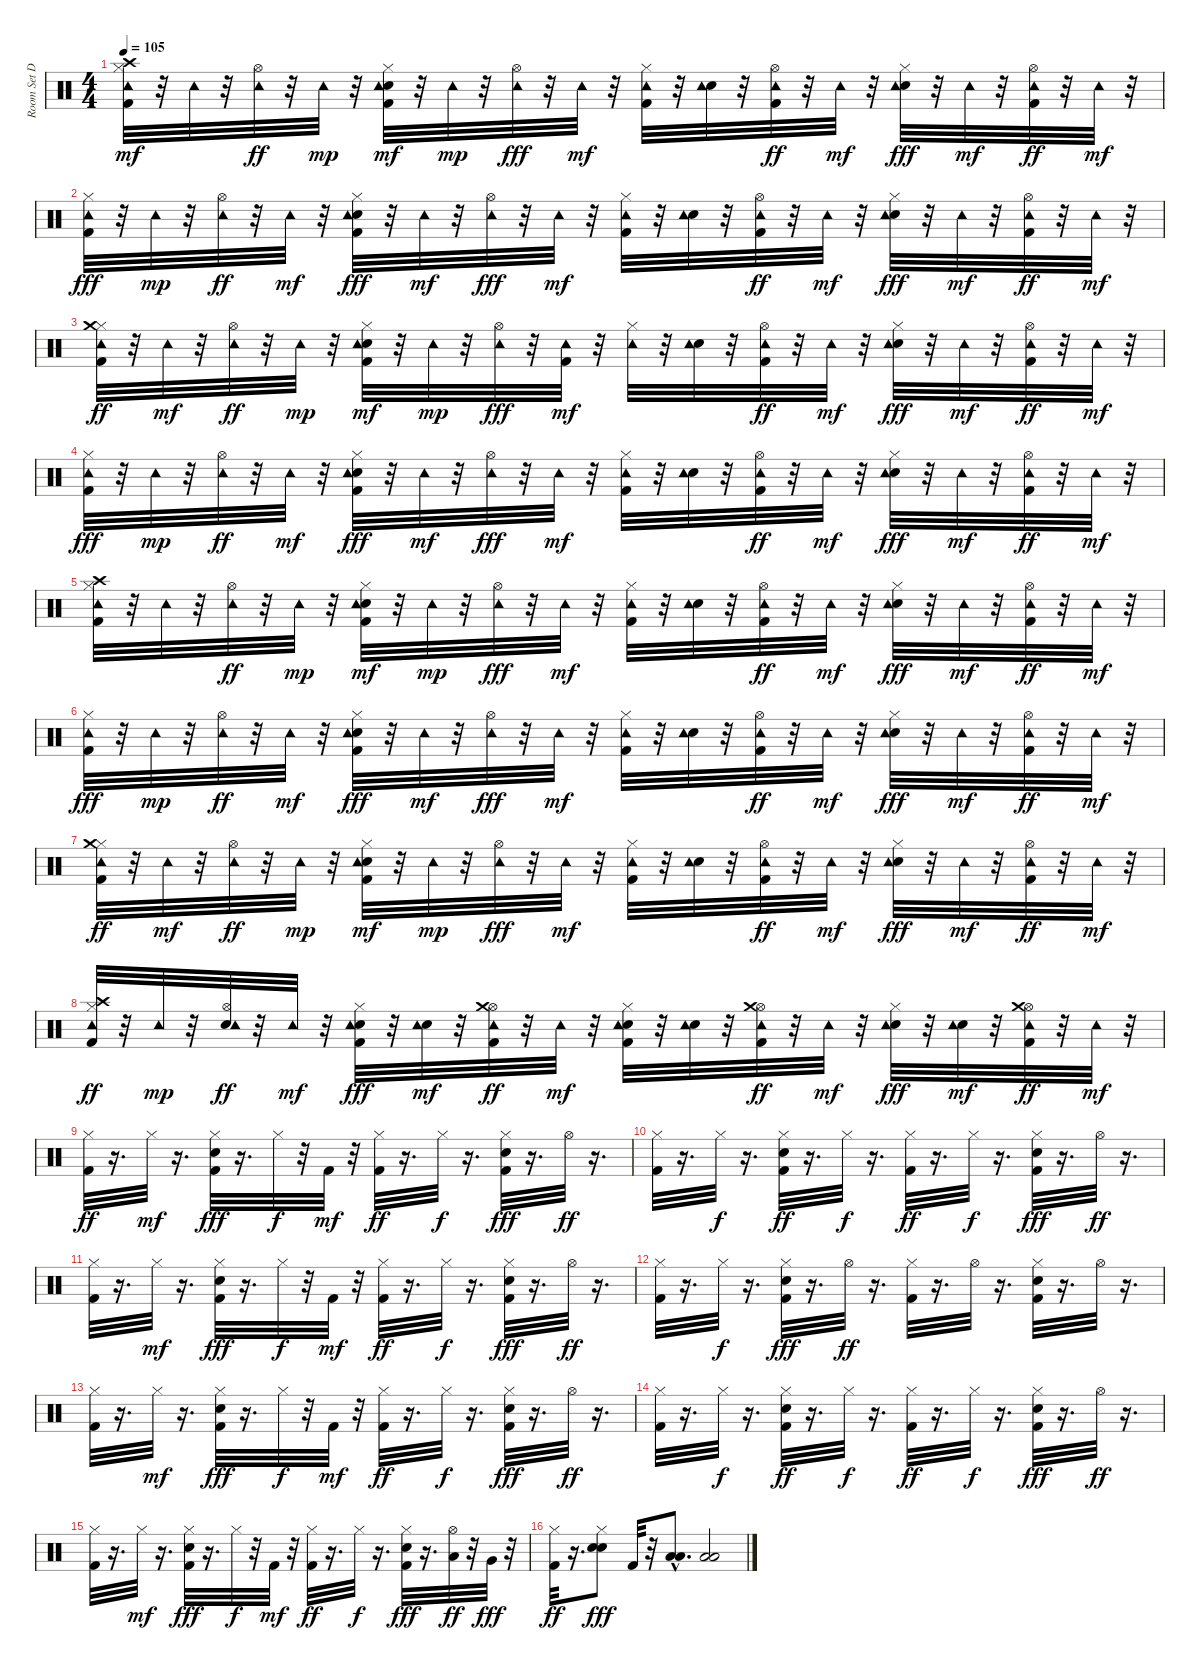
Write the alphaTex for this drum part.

\track ("Room Set Drums" "Room Set D") {instrument percussion}
\staff {score}
\articulation defaults
\ts (4 4)
\tempo 105
\clef neutral
\ks c
("Kick (hit) 2" "Hi-Hat (closed)" "Crash high (hit)" "Tambourine (hit)").32{dy mf} r.32 "Tambourine (hit)".32 r.32 ("Hi-Hat (open)" "Tambourine (hit)").32{dy ff} r.32 "Tambourine (hit)".32{dy mp} r.32 ("Kick (hit) 2" "Electric Snare (hit)" "Hi-Hat (closed)" "Tambourine (hit)").32{dy mf} r.32 "Tambourine (hit)".32{dy mp} r.32 ("Hi-Hat (open)" "Tambourine (hit)").32{dy fff} r.32 "Tambourine (hit)".32{dy mf} r.32 ("Kick (hit) 2" "Hi-Hat (closed)" "Tambourine (hit)").32 r.32 ("Electric Snare (hit)" "Tambourine (hit)").32 r.32 ("Kick (hit) 2" "Hi-Hat (open)" "Tambourine (hit)").32{dy ff} r.32 "Tambourine (hit)".32{dy mf} r.32 ("Electric Snare (hit)" "Hi-Hat (closed)" "Tambourine (hit)").32{dy fff} r.32 "Tambourine (hit)".32{dy mf} r.32 ("Kick (hit) 2" "Hi-Hat (open)" "Tambourine (hit)").32{dy ff} r.32 "Tambourine (hit)".32{dy mf} r.32 |
("Kick (hit) 2" "Hi-Hat (closed)" "Tambourine (hit)").32{dy fff} r.32 "Tambourine (hit)".32{dy mp} r.32 ("Hi-Hat (open)" "Tambourine (hit)").32{dy ff} r.32 "Tambourine (hit)".32{dy mf} r.32 ("Kick (hit) 2" "Electric Snare (hit)" "Hi-Hat (closed)" "Tambourine (hit)").32{dy fff} r.32 "Tambourine (hit)".32{dy mf} r.32 ("Hi-Hat (open)" "Tambourine (hit)").32{dy fff} r.32 "Tambourine (hit)".32{dy mf} r.32 ("Kick (hit) 2" "Hi-Hat (closed)" "Tambourine (hit)").32 r.32 ("Electric Snare (hit)" "Tambourine (hit)").32 r.32 ("Kick (hit) 2" "Hi-Hat (open)" "Tambourine (hit)").32{dy ff} r.32 "Tambourine (hit)".32{dy mf} r.32 ("Electric Snare (hit)" "Hi-Hat (closed)" "Tambourine (hit)").32{dy fff} r.32 "Tambourine (hit)".32{dy mf} r.32 ("Kick (hit) 2" "Hi-Hat (open)" "Tambourine (hit)").32{dy ff} r.32 "Tambourine (hit)".32{dy mf} r.32 |
("Kick (hit) 2" "Hi-Hat (closed)" "Tambourine (hit)" "Crash medium (hit)").32{dy ff} r.32 "Tambourine (hit)".32{dy mf} r.32 ("Hi-Hat (open)" "Tambourine (hit)").32{dy ff} r.32 "Tambourine (hit)".32{dy mp} r.32 ("Kick (hit) 2" "Electric Snare (hit)" "Hi-Hat (closed)" "Tambourine (hit)").32{dy mf} r.32 "Tambourine (hit)".32{dy mp} r.32 ("Hi-Hat (open)" "Tambourine (hit)").32{dy fff} r.32 ("Kick (hit) 2" "Tambourine (hit)").32{dy mf} r.32 ("Hi-Hat (closed)" "Tambourine (hit)").32 r.32 ("Electric Snare (hit)" "Tambourine (hit)").32 r.32 ("Kick (hit) 2" "Hi-Hat (open)" "Tambourine (hit)").32{dy ff} r.32 "Tambourine (hit)".32{dy mf} r.32 ("Electric Snare (hit)" "Hi-Hat (closed)" "Tambourine (hit)").32{dy fff} r.32 "Tambourine (hit)".32{dy mf} r.32 ("Kick (hit) 2" "Hi-Hat (open)" "Tambourine (hit)").32{dy ff} r.32 "Tambourine (hit)".32{dy mf} r.32 |
("Kick (hit) 2" "Hi-Hat (closed)" "Tambourine (hit)").32{dy fff} r.32 "Tambourine (hit)".32{dy mp} r.32 ("Hi-Hat (open)" "Tambourine (hit)").32{dy ff} r.32 "Tambourine (hit)".32{dy mf} r.32 ("Kick (hit) 2" "Electric Snare (hit)" "Hi-Hat (closed)" "Tambourine (hit)").32{dy fff} r.32 "Tambourine (hit)".32{dy mf} r.32 ("Hi-Hat (open)" "Tambourine (hit)").32{dy fff} r.32 "Tambourine (hit)".32{dy mf} r.32 ("Kick (hit) 2" "Hi-Hat (closed)" "Tambourine (hit)").32 r.32 ("Electric Snare (hit)" "Tambourine (hit)").32 r.32 ("Kick (hit) 2" "Hi-Hat (open)" "Tambourine (hit)").32{dy ff} r.32 "Tambourine (hit)".32{dy mf} r.32 ("Electric Snare (hit)" "Hi-Hat (closed)" "Tambourine (hit)").32{dy fff} r.32 "Tambourine (hit)".32{dy mf} r.32 ("Kick (hit) 2" "Hi-Hat (open)" "Tambourine (hit)").32{dy ff} r.32 "Tambourine (hit)".32{dy mf} r.32 |
("Kick (hit) 2" "Hi-Hat (closed)" "Crash high (hit)" "Tambourine (hit)").32 r.32 "Tambourine (hit)".32 r.32 ("Hi-Hat (open)" "Tambourine (hit)").32{dy ff} r.32 "Tambourine (hit)".32{dy mp} r.32 ("Kick (hit) 2" "Electric Snare (hit)" "Hi-Hat (closed)" "Tambourine (hit)").32{dy mf} r.32 "Tambourine (hit)".32{dy mp} r.32 ("Hi-Hat (open)" "Tambourine (hit)").32{dy fff} r.32 "Tambourine (hit)".32{dy mf} r.32 ("Kick (hit) 2" "Hi-Hat (closed)" "Tambourine (hit)").32 r.32 ("Electric Snare (hit)" "Tambourine (hit)").32 r.32 ("Kick (hit) 2" "Hi-Hat (open)" "Tambourine (hit)").32{dy ff} r.32 "Tambourine (hit)".32{dy mf} r.32 ("Electric Snare (hit)" "Hi-Hat (closed)" "Tambourine (hit)").32{dy fff} r.32 "Tambourine (hit)".32{dy mf} r.32 ("Kick (hit) 2" "Hi-Hat (open)" "Tambourine (hit)").32{dy ff} r.32 "Tambourine (hit)".32{dy mf} r.32 |
("Kick (hit) 2" "Hi-Hat (closed)" "Tambourine (hit)").32{dy fff} r.32 "Tambourine (hit)".32{dy mp} r.32 ("Hi-Hat (open)" "Tambourine (hit)").32{dy ff} r.32 "Tambourine (hit)".32{dy mf} r.32 ("Kick (hit) 2" "Electric Snare (hit)" "Hi-Hat (closed)" "Tambourine (hit)").32{dy fff} r.32 "Tambourine (hit)".32{dy mf} r.32 ("Hi-Hat (open)" "Tambourine (hit)").32{dy fff} r.32 "Tambourine (hit)".32{dy mf} r.32 ("Kick (hit) 2" "Hi-Hat (closed)" "Tambourine (hit)").32 r.32 ("Electric Snare (hit)" "Tambourine (hit)").32 r.32 ("Kick (hit) 2" "Hi-Hat (open)" "Tambourine (hit)").32{dy ff} r.32 "Tambourine (hit)".32{dy mf} r.32 ("Electric Snare (hit)" "Hi-Hat (closed)" "Tambourine (hit)").32{dy fff} r.32 "Tambourine (hit)".32{dy mf} r.32 ("Kick (hit) 2" "Hi-Hat (open)" "Tambourine (hit)").32{dy ff} r.32 "Tambourine (hit)".32{dy mf} r.32 |
("Kick (hit) 2" "Hi-Hat (closed)" "Tambourine (hit)" "Crash medium (hit)").32{dy ff} r.32 "Tambourine (hit)".32{dy mf} r.32 ("Hi-Hat (open)" "Tambourine (hit)").32{dy ff} r.32 "Tambourine (hit)".32{dy mp} r.32 ("Kick (hit) 2" "Electric Snare (hit)" "Hi-Hat (closed)" "Tambourine (hit)").32{dy mf} r.32 "Tambourine (hit)".32{dy mp} r.32 ("Hi-Hat (open)" "Tambourine (hit)").32{dy fff} r.32 "Tambourine (hit)".32{dy mf} r.32 ("Kick (hit) 2" "Hi-Hat (closed)" "Tambourine (hit)").32 r.32 ("Electric Snare (hit)" "Tambourine (hit)").32 r.32 ("Kick (hit) 2" "Hi-Hat (open)" "Tambourine (hit)").32{dy ff} r.32 "Tambourine (hit)".32{dy mf} r.32 ("Electric Snare (hit)" "Hi-Hat (closed)" "Tambourine (hit)").32{dy fff} r.32 "Tambourine (hit)".32{dy mf} r.32 ("Kick (hit) 2" "Hi-Hat (open)" "Tambourine (hit)").32{dy ff} r.32 "Tambourine (hit)".32{dy mf} r.32 |
("Kick (hit) 2" "Hi-Hat (closed)" "Crash high (hit)" "Tambourine (hit)").32{dy ff} r.32 "Tambourine (hit)".32{dy mp} r.32 ("Electric Snare (hit)" "Hi-Hat (open)" "Tambourine (hit)").32{dy ff} r.32 "Tambourine (hit)".32{dy mf} r.32 ("Kick (hit) 2" "Electric Snare (hit)" "Hi-Hat (closed)" "Tambourine (hit)").32{dy fff} r.32 ("Electric Snare (hit)" "Tambourine (hit)").32{dy mf} r.32 ("Kick (hit) 2" "Hi-Hat (open)" "Tambourine (hit)" "Crash medium (hit)").32{dy ff} r.32 "Tambourine (hit)".32{dy mf} r.32 ("Kick (hit) 2" "Electric Snare (hit)" "Hi-Hat (closed)" "Tambourine (hit)").32 r.32 ("Electric Snare (hit)" "Tambourine (hit)").32 r.32 ("Kick (hit) 2" "Hi-Hat (open)" "Tambourine (hit)" "Crash medium (hit)").32{dy ff} r.32 "Tambourine (hit)".32{dy mf} r.32 ("Electric Snare (hit)" "Hi-Hat (closed)" "Tambourine (hit)").32{dy fff} r.32 ("Electric Snare (hit)" "Tambourine (hit)").32{dy mf} r.32 ("Kick (hit) 2" "Hi-Hat (open)" "Tambourine (hit)" "Crash medium (hit)").32{dy ff} r.32 "Tambourine (hit)".32{dy mf} r.32 |
("Kick (hit) 2" "Hi-Hat (closed)").32{dy ff} r.16{d} "Hi-Hat (closed)".32{dy mf} r.16{d} ("Kick (hit) 2" "Electric Snare (hit)" "Hi-Hat (closed)").32{dy fff} r.16{d} "Hi-Hat (closed)".32{dy f} r.32 "Kick (hit) 2".32{dy mf} r.32 ("Kick (hit) 2" "Hi-Hat (closed)").32{dy ff} r.16{d} "Hi-Hat (closed)".32{dy f} r.16{d} ("Kick (hit) 2" "Electric Snare (hit)" "Hi-Hat (closed)").32{dy fff} r.16{d} "Hi-Hat (open)".32{dy ff} r.16{d} |
("Kick (hit) 2" "Hi-Hat (closed)").32 r.16{d} "Hi-Hat (closed)".32{dy f} r.16{d} ("Kick (hit) 2" "Electric Snare (hit)" "Hi-Hat (closed)").32{dy ff} r.16{d} "Hi-Hat (closed)".32{dy f} r.16{d} ("Kick (hit) 2" "Hi-Hat (closed)").32{dy ff} r.16{d} "Hi-Hat (closed)".32{dy f} r.16{d} ("Kick (hit) 2" "Electric Snare (hit)" "Hi-Hat (closed)").32{dy fff} r.16{d} "Hi-Hat (open)".32{dy ff} r.16{d} |
("Kick (hit) 2" "Hi-Hat (closed)").32 r.16{d} "Hi-Hat (closed)".32{dy mf} r.16{d} ("Kick (hit) 2" "Electric Snare (hit)" "Hi-Hat (closed)").32{dy fff} r.16{d} "Hi-Hat (closed)".32{dy f} r.32 "Kick (hit) 2".32{dy mf} r.32 ("Kick (hit) 2" "Hi-Hat (closed)").32{dy ff} r.16{d} "Hi-Hat (closed)".32{dy f} r.16{d} ("Kick (hit) 2" "Electric Snare (hit)" "Hi-Hat (closed)").32{dy fff} r.16{d} "Hi-Hat (open)".32{dy ff} r.16{d} |
("Kick (hit) 2" "Hi-Hat (closed)").32 r.16{d} "Hi-Hat (closed)".32{dy f} r.16{d} ("Kick (hit) 2" "Electric Snare (hit)" "Hi-Hat (closed)").32{dy fff} r.16{d} "Hi-Hat (open)".32{dy ff} r.16{d} ("Kick (hit) 2" "Hi-Hat (closed)").32 r.16{d} "Hi-Hat (open)".32 r.16{d} ("Kick (hit) 2" "Electric Snare (hit)" "Hi-Hat (closed)").32 r.16{d} "Hi-Hat (open)".32 r.16{d} |
("Kick (hit) 2" "Hi-Hat (closed)").32 r.16{d} "Hi-Hat (closed)".32{dy mf} r.16{d} ("Kick (hit) 2" "Electric Snare (hit)" "Hi-Hat (closed)").32{dy fff} r.16{d} "Hi-Hat (closed)".32{dy f} r.32 "Kick (hit) 2".32{dy mf} r.32 ("Kick (hit) 2" "Hi-Hat (closed)").32{dy ff} r.16{d} "Hi-Hat (closed)".32{dy f} r.16{d} ("Kick (hit) 2" "Electric Snare (hit)" "Hi-Hat (closed)").32{dy fff} r.16{d} "Hi-Hat (open)".32{dy ff} r.16{d} |
("Kick (hit) 2" "Hi-Hat (closed)").32 r.16{d} "Hi-Hat (closed)".32{dy f} r.16{d} ("Kick (hit) 2" "Electric Snare (hit)" "Hi-Hat (closed)").32{dy ff} r.16{d} "Hi-Hat (closed)".32{dy f} r.16{d} ("Kick (hit) 2" "Hi-Hat (closed)").32{dy ff} r.16{d} "Hi-Hat (closed)".32{dy f} r.16{d} ("Kick (hit) 2" "Electric Snare (hit)" "Hi-Hat (closed)").32{dy fff} r.16{d} "Hi-Hat (open)".32{dy ff} r.16{d} |
("Kick (hit) 2" "Hi-Hat (closed)").32 r.16{d} "Hi-Hat (closed)".32{dy mf} r.16{d} ("Kick (hit) 2" "Electric Snare (hit)" "Hi-Hat (closed)").32{dy fff} r.16{d} "Hi-Hat (closed)".32{dy f} r.32 "Kick (hit) 2".32{dy mf} r.32 ("Kick (hit) 2" "Hi-Hat (closed)").32{dy ff} r.16{d} "Hi-Hat (closed)".32{dy f} r.16{d} ("Kick (hit) 2" "Electric Snare (hit)" "Hi-Hat (closed)").32{dy fff} r.16{d} ("Low Tom (hit)" "Hi-Hat (open)").32{dy ff} r.32 "Very Low Tom (hit)".32{dy fff} r.32 |
("Kick (hit) 2" "Hi-Hat (closed)").32{dy ff} r.16{d} ("Electric Snare (hit)" "Hi-Hat (closed)" "Electric Snare (hit)").8{dy fff} "Kick (hit) 2".32 r.32 ("Low Tom (hit)"{hac} "Low Tom (hit)").8{d} ("Low Floor Tom (hit)" "Low Floor Tom (hit)").2
